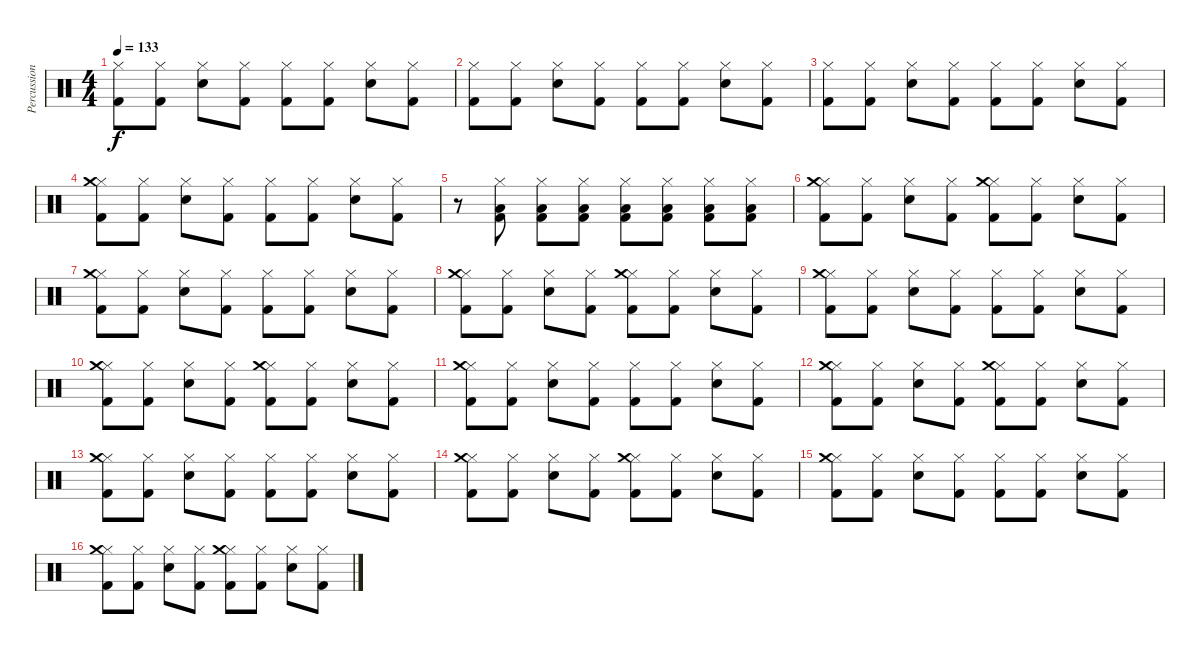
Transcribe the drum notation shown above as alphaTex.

\track ("Percussion" "Percussion") {instrument percussion}
\staff {score}
\articulation defaults
\ts (4 4)
\tempo 133
\clef neutral
\ks c
("Hi-Hat (closed)" "Kick (hit) 2").8{dy f} ("Hi-Hat (closed)" "Kick (hit) 2").8 ("Electric Snare (hit)" "Hi-Hat (closed)").8 ("Hi-Hat (closed)" "Kick (hit) 2").8 ("Hi-Hat (closed)" "Kick (hit) 2").8 ("Hi-Hat (closed)" "Kick (hit) 2").8 ("Electric Snare (hit)" "Hi-Hat (closed)").8 ("Hi-Hat (closed)" "Kick (hit) 2").8 |
("Hi-Hat (closed)" "Kick (hit) 2").8 ("Hi-Hat (closed)" "Kick (hit) 2").8 ("Electric Snare (hit)" "Hi-Hat (closed)").8 ("Hi-Hat (closed)" "Kick (hit) 2").8 ("Hi-Hat (closed)" "Kick (hit) 2").8 ("Hi-Hat (closed)" "Kick (hit) 2").8 ("Electric Snare (hit)" "Hi-Hat (closed)").8 ("Hi-Hat (closed)" "Kick (hit) 2").8 |
("Hi-Hat (closed)" "Kick (hit) 2").8 ("Hi-Hat (closed)" "Kick (hit) 2").8 ("Electric Snare (hit)" "Hi-Hat (closed)").8 ("Hi-Hat (closed)" "Kick (hit) 2").8 ("Hi-Hat (closed)" "Kick (hit) 2").8 ("Hi-Hat (closed)" "Kick (hit) 2").8 ("Electric Snare (hit)" "Hi-Hat (closed)").8 ("Hi-Hat (closed)" "Kick (hit) 2").8 |
("Hi-Hat (closed)" "Kick (hit) 2" "Crash medium (hit)").8 ("Hi-Hat (closed)" "Kick (hit) 2").8 ("Electric Snare (hit)" "Hi-Hat (closed)").8 ("Hi-Hat (closed)" "Kick (hit) 2").8 ("Hi-Hat (closed)" "Kick (hit) 2").8 ("Hi-Hat (closed)" "Kick (hit) 2").8 ("Electric Snare (hit)" "Hi-Hat (closed)").8 ("Hi-Hat (closed)" "Kick (hit) 2").8 |
r.8 ("Hi-Hat (closed)" "Kick (hit) 2" "Low Floor Tom (hit)").8 ("Hi-Hat (closed)" "Kick (hit) 2" "Low Floor Tom (hit)").8 ("Hi-Hat (closed)" "Kick (hit) 2" "Low Floor Tom (hit)").8 ("Hi-Hat (closed)" "Kick (hit) 2" "Low Floor Tom (hit)").8 ("Hi-Hat (closed)" "Kick (hit) 2" "Low Floor Tom (hit)").8 ("Hi-Hat (closed)" "Kick (hit) 2" "Low Floor Tom (hit)").8 ("Hi-Hat (closed)" "Kick (hit) 2" "Low Floor Tom (hit)").8 |
("Hi-Hat (closed)" "Kick (hit) 2" "Crash medium (hit)").8 ("Hi-Hat (closed)" "Kick (hit) 2").8 ("Electric Snare (hit)" "Hi-Hat (closed)").8 ("Hi-Hat (closed)" "Kick (hit) 2").8 ("Hi-Hat (closed)" "Kick (hit) 2" "Crash medium (hit)").8 ("Hi-Hat (closed)" "Kick (hit) 2").8 ("Electric Snare (hit)" "Hi-Hat (closed)").8 ("Hi-Hat (closed)" "Kick (hit) 2").8 |
("Hi-Hat (closed)" "Kick (hit) 2" "Crash medium (hit)").8 ("Hi-Hat (closed)" "Kick (hit) 2").8 ("Electric Snare (hit)" "Hi-Hat (closed)").8 ("Hi-Hat (closed)" "Kick (hit) 2").8 ("Hi-Hat (closed)" "Kick (hit) 2").8 ("Hi-Hat (closed)" "Kick (hit) 2").8 ("Electric Snare (hit)" "Hi-Hat (closed)").8 ("Hi-Hat (closed)" "Kick (hit) 2").8 |
("Hi-Hat (closed)" "Kick (hit) 2" "Crash medium (hit)").8 ("Hi-Hat (closed)" "Kick (hit) 2").8 ("Electric Snare (hit)" "Hi-Hat (closed)").8 ("Hi-Hat (closed)" "Kick (hit) 2").8 ("Hi-Hat (closed)" "Kick (hit) 2" "Crash medium (hit)").8 ("Hi-Hat (closed)" "Kick (hit) 2").8 ("Electric Snare (hit)" "Hi-Hat (closed)").8 ("Hi-Hat (closed)" "Kick (hit) 2").8 |
("Hi-Hat (closed)" "Kick (hit) 2" "Crash medium (hit)").8 ("Hi-Hat (closed)" "Kick (hit) 2").8 ("Electric Snare (hit)" "Hi-Hat (closed)").8 ("Hi-Hat (closed)" "Kick (hit) 2").8 ("Hi-Hat (closed)" "Kick (hit) 2").8 ("Hi-Hat (closed)" "Kick (hit) 2").8 ("Electric Snare (hit)" "Hi-Hat (closed)").8 ("Hi-Hat (closed)" "Kick (hit) 2").8 |
("Hi-Hat (closed)" "Kick (hit) 2" "Crash medium (hit)").8 ("Hi-Hat (closed)" "Kick (hit) 2").8 ("Electric Snare (hit)" "Hi-Hat (closed)").8 ("Hi-Hat (closed)" "Kick (hit) 2").8 ("Hi-Hat (closed)" "Kick (hit) 2" "Crash medium (hit)").8 ("Hi-Hat (closed)" "Kick (hit) 2").8 ("Electric Snare (hit)" "Hi-Hat (closed)").8 ("Hi-Hat (closed)" "Kick (hit) 2").8 |
("Hi-Hat (closed)" "Kick (hit) 2" "Crash medium (hit)").8 ("Hi-Hat (closed)" "Kick (hit) 2").8 ("Electric Snare (hit)" "Hi-Hat (closed)").8 ("Hi-Hat (closed)" "Kick (hit) 2").8 ("Hi-Hat (closed)" "Kick (hit) 2").8 ("Hi-Hat (closed)" "Kick (hit) 2").8 ("Electric Snare (hit)" "Hi-Hat (closed)").8 ("Hi-Hat (closed)" "Kick (hit) 2").8 |
("Hi-Hat (closed)" "Kick (hit) 2" "Crash medium (hit)").8 ("Hi-Hat (closed)" "Kick (hit) 2").8 ("Electric Snare (hit)" "Hi-Hat (closed)").8 ("Hi-Hat (closed)" "Kick (hit) 2").8 ("Hi-Hat (closed)" "Kick (hit) 2" "Crash medium (hit)").8 ("Hi-Hat (closed)" "Kick (hit) 2").8 ("Electric Snare (hit)" "Hi-Hat (closed)").8 ("Hi-Hat (closed)" "Kick (hit) 2").8 |
("Hi-Hat (closed)" "Kick (hit) 2" "Crash medium (hit)").8 ("Hi-Hat (closed)" "Kick (hit) 2").8 ("Electric Snare (hit)" "Hi-Hat (closed)").8 ("Hi-Hat (closed)" "Kick (hit) 2").8 ("Hi-Hat (closed)" "Kick (hit) 2").8 ("Hi-Hat (closed)" "Kick (hit) 2").8 ("Electric Snare (hit)" "Hi-Hat (closed)").8 ("Hi-Hat (closed)" "Kick (hit) 2").8 |
("Hi-Hat (closed)" "Kick (hit) 2" "Crash medium (hit)").8 ("Hi-Hat (closed)" "Kick (hit) 2").8 ("Electric Snare (hit)" "Hi-Hat (closed)").8 ("Hi-Hat (closed)" "Kick (hit) 2").8 ("Hi-Hat (closed)" "Kick (hit) 2" "Crash medium (hit)").8 ("Hi-Hat (closed)" "Kick (hit) 2").8 ("Electric Snare (hit)" "Hi-Hat (closed)").8 ("Hi-Hat (closed)" "Kick (hit) 2").8 |
("Hi-Hat (closed)" "Kick (hit) 2" "Crash medium (hit)").8 ("Hi-Hat (closed)" "Kick (hit) 2").8 ("Electric Snare (hit)" "Hi-Hat (closed)").8 ("Hi-Hat (closed)" "Kick (hit) 2").8 ("Hi-Hat (closed)" "Kick (hit) 2").8 ("Hi-Hat (closed)" "Kick (hit) 2").8 ("Electric Snare (hit)" "Hi-Hat (closed)").8 ("Hi-Hat (closed)" "Kick (hit) 2").8 |
("Hi-Hat (closed)" "Kick (hit) 2" "Crash medium (hit)").8 ("Hi-Hat (closed)" "Kick (hit) 2").8 ("Electric Snare (hit)" "Hi-Hat (closed)").8 ("Hi-Hat (closed)" "Kick (hit) 2").8 ("Hi-Hat (closed)" "Kick (hit) 2" "Crash medium (hit)").8 ("Hi-Hat (closed)" "Kick (hit) 2").8 ("Electric Snare (hit)" "Hi-Hat (closed)").8 ("Hi-Hat (closed)" "Kick (hit) 2").8
